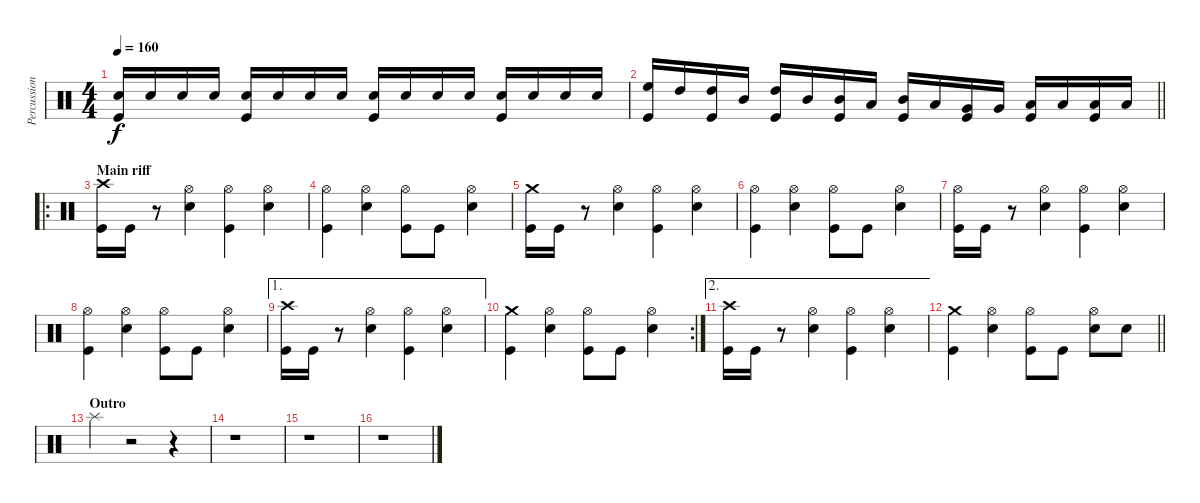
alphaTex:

\track ("Percussion" "Percussion") {instrument percussion}
\staff {score}
\articulation defaults
\ts (4 4)
\tempo 160
\clef neutral
\ks c
("Snare (hit) 2" "Kick (hit)").16{dy f} "Snare (hit) 2".16 "Snare (hit) 2".16 "Snare (hit) 2".16 ("Snare (hit) 2" "Kick (hit)").16 "Snare (hit) 2".16 "Snare (hit) 2".16 "Snare (hit) 2".16 ("Snare (hit) 2" "Kick (hit)").16 "Snare (hit) 2".16 "Snare (hit) 2".16 "Snare (hit) 2".16 ("Snare (hit) 2" "Kick (hit)").16 "Snare (hit) 2".16 "Snare (hit) 2".16 "Snare (hit) 2".16 |
\barLineRight lightlight
("High Floor Tom (hit)" "Kick (hit)").16 "High Tom (hit)".16 ("High Tom (hit)" "Kick (hit)").16 "Mid Tom (hit)".16 ("High Tom (hit)" "Kick (hit)").16 "Mid Tom (hit)".16 ("Mid Tom (hit)" "Kick (hit)").16 "Low Tom (hit)".16 ("Mid Tom (hit)" "Kick (hit)").16 "Low Tom (hit)".16 ("Very Low Tom (hit)" "Kick (hit)").16 "Very Low Tom (hit)".16 ("Low Floor Tom (hit)" "Kick (hit)").16 "Low Floor Tom (hit)".16 ("Low Floor Tom (hit)" "Kick (hit)").16 "Low Floor Tom (hit)".16 |
\ro
\section ("" "Main riff")
("Crash high (hit)" "Kick (hit)").16 "Kick (hit)".16 r.8 ("Hi-Hat (open)" "Snare (hit) 2").4 ("Hi-Hat (open)" "Kick (hit)").4 ("Hi-Hat (open)" "Snare (hit) 2").4 |
("Hi-Hat (open)" "Kick (hit)").4 ("Hi-Hat (open)" "Snare (hit) 2").4 ("Hi-Hat (open)" "Kick (hit)").8 "Kick (hit)".8 ("Hi-Hat (open)" "Snare (hit) 2").4 |
("Crash medium (hit)" "Kick (hit)").16 "Kick (hit)".16 r.8 ("Hi-Hat (open)" "Snare (hit) 2").4 ("Hi-Hat (open)" "Kick (hit)").4 ("Hi-Hat (open)" "Snare (hit) 2").4 |
("Hi-Hat (open)" "Kick (hit)").4 ("Hi-Hat (open)" "Snare (hit) 2").4 ("Hi-Hat (open)" "Kick (hit)").8 "Kick (hit)".8 ("Hi-Hat (open)" "Snare (hit) 2").4 |
("Hi-Hat (open)" "Kick (hit)").16 "Kick (hit)".16 r.8 ("Hi-Hat (open)" "Snare (hit) 2").4 ("Hi-Hat (open)" "Kick (hit)").4 ("Hi-Hat (open)" "Snare (hit) 2").4 |
("Hi-Hat (open)" "Kick (hit)").4 ("Hi-Hat (open)" "Snare (hit) 2").4 ("Hi-Hat (open)" "Kick (hit)").8 "Kick (hit)".8 ("Hi-Hat (open)" "Snare (hit) 2").4 |
\ae 1
("Crash high (hit)" "Kick (hit)").16 "Kick (hit)".16 r.8 ("Hi-Hat (open)" "Snare (hit) 2").4 ("Hi-Hat (open)" "Kick (hit)").4 ("Hi-Hat (open)" "Snare (hit) 2").4 |
\rc 2
("Crash medium (hit)" "Kick (hit)").4 ("Hi-Hat (open)" "Snare (hit) 2").4 ("Hi-Hat (open)" "Kick (hit)").8 "Kick (hit)".8 ("Hi-Hat (open)" "Snare (hit) 2").4 |
\ae 2
("Crash high (hit)" "Kick (hit)").16 "Kick (hit)".16 r.8 ("Hi-Hat (open)" "Snare (hit) 2").4 ("Hi-Hat (open)" "Kick (hit)").4 ("Hi-Hat (open)" "Snare (hit) 2").4 |
\barLineRight lightlight
("Crash medium (hit)" "Kick (hit)").4 ("Hi-Hat (open)" "Snare (hit) 2").4 ("Hi-Hat (open)" "Kick (hit)").8 "Kick (hit)".8 ("Hi-Hat (open)" "Snare (hit) 2").8 "Snare (hit) 2".8 |
\section ("" "Outro")
"Splash (hit)".4 r.2 r.4 |
r.1 |
r.1 |
r.1
